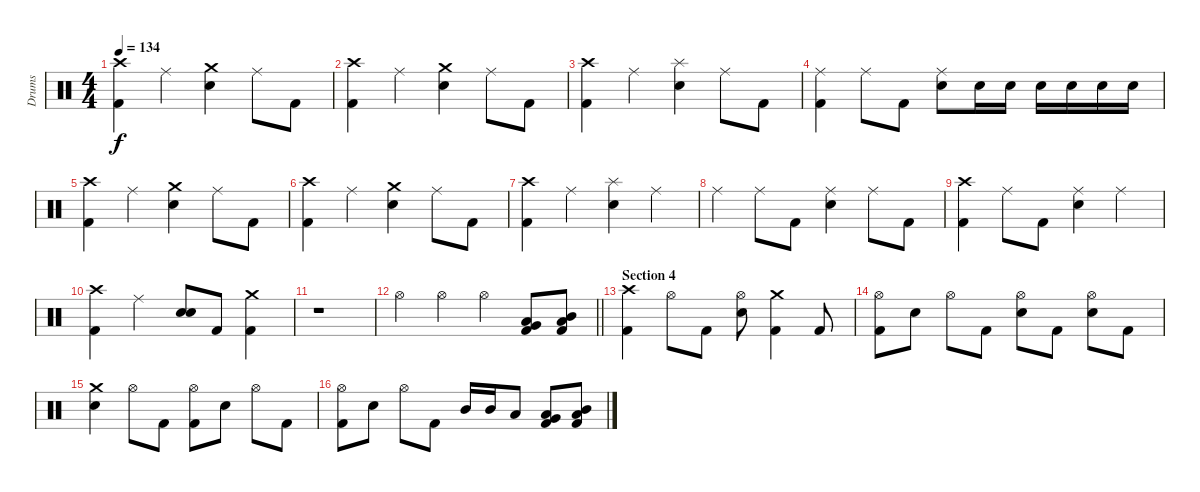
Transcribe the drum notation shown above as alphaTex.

\track ("Drums" "Drums") {instrument percussion}
\staff {score}
\articulation defaults
\ts (4 4)
\tempo 134
\clef neutral
\ks c
("Crash high (hit)" "Kick (hit) 2").4{dy f} "Ride (middle)".4 ("Crash medium (hit)" "Electric Snare (hit)").4 "Ride (middle)".8 "Kick (hit) 2".8 |
("Crash high (hit)" "Kick (hit) 2").4 "Ride (middle)".4 ("Crash medium (hit)" "Electric Snare (hit)").4 "Ride (middle)".8 "Kick (hit) 2".8 |
("Crash high (hit)" "Kick (hit) 2").4 "Ride (middle)".4 ("Splash (hit)" "Electric Snare (hit)").4 "Ride (middle)".8 "Kick (hit) 2".8 |
("Ride (middle)" "Kick (hit) 2").4 "Ride (middle)".8 "Kick (hit) 2".8 ("Ride (middle)" "Electric Snare (hit)").8 "Electric Snare (hit)".16 "Electric Snare (hit)".16 "Electric Snare (hit)".16 "Electric Snare (hit)".16 "Electric Snare (hit)".16 "Electric Snare (hit)".16 |
("Crash high (hit)" "Kick (hit) 2").4 "Ride (middle)".4 ("Crash medium (hit)" "Electric Snare (hit)").4 "Ride (middle)".8 "Kick (hit) 2".8 |
("Crash high (hit)" "Kick (hit) 2").4 "Ride (middle)".4 ("Crash medium (hit)" "Electric Snare (hit)").4 "Ride (middle)".8 "Kick (hit) 2".8 |
("Crash high (hit)" "Kick (hit) 2").4 "Ride (middle)".4 ("Splash (hit)" "Electric Snare (hit)").4 "Ride (middle)".4 |
"Ride (middle)".4 "Ride (middle)".8 "Kick (hit) 2".8 ("Ride (middle)" "Electric Snare (hit)").4 "Ride (middle)".8 "Kick (hit) 2".8 |
("Crash high (hit)" "Kick (hit) 2").4 "Ride (middle)".8 "Kick (hit) 2".8 ("Ride (middle)" "Electric Snare (hit)").4 "Ride (middle)".4 |
("Crash high (hit)" "Kick (hit) 2").4 "Ride (middle)".4 ("Electric Snare (hit)" "Electric Snare (hit)").8{bu 240} "Kick (hit) 2".8 ("Crash medium (hit)" "Kick (hit) 2").4 |
r.1 |
\barLineRight lightlight "Hi-Hat (open)".4 "Hi-Hat (open)".4 "Hi-Hat (open)".4
("Low Tom (hit)" "Very Low Tom (hit)" "Kick (hit) 2").8 ("Mid Tom (hit)" "Low Tom (hit)" "Kick (hit) 2").8 |
\section ("" "Section 4")
("Crash high (hit)" "Kick (hit) 2").4 "Hi-Hat (open)".8 "Kick (hit) 2".8 ("Hi-Hat (open)" "Electric Snare (hit)").8 ("Crash medium (hit)" "Kick (hit) 2").4 "Kick (hit) 2".8 |
("Hi-Hat (open)" "Kick (hit) 2").8 "Electric Snare (hit)".8 "Hi-Hat (open)".8 "Kick (hit) 2".8 ("Hi-Hat (open)" "Electric Snare (hit)").8 "Kick (hit) 2".8 ("Hi-Hat (open)" "Electric Snare (hit)").8 "Kick (hit) 2".8 |
("Crash medium (hit)" "Electric Snare (hit)").4 "Hi-Hat (open)".8 "Kick (hit) 2".8 ("Hi-Hat (open)" "Kick (hit) 2").8 "Electric Snare (hit)".8 "Hi-Hat (open)".8 "Kick (hit) 2".8 |
("Hi-Hat (open)" "Kick (hit) 2").8 "Electric Snare (hit)".8 "Hi-Hat (open)".8 "Kick (hit) 2".8 "Mid Tom (hit)".16 "Mid Tom (hit)".16 "Low Tom (hit)".8 ("Low Tom (hit)" "Very Low Tom (hit)" "Kick (hit) 2").8 ("Mid Tom (hit)" "Low Tom (hit)" "Kick (hit) 2").8
